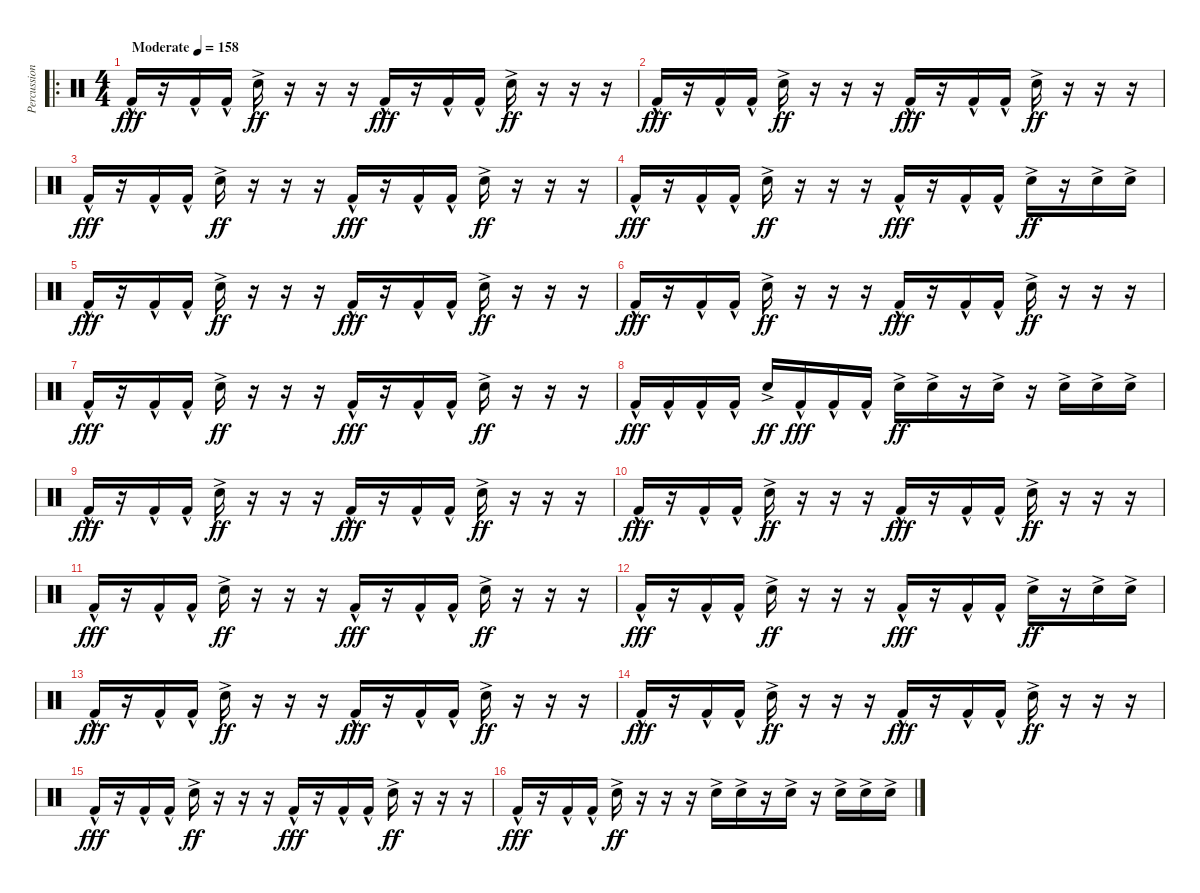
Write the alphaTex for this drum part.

\track ("Percussion" "Percussion") {instrument percussion}
\staff {score}
\articulation defaults
\ro
\ts (4 4)
\tempo (158 "Moderate")
\clef neutral
\ks c "Kick (hit) 2"{hac}.16{dy fff}
r.16 "Kick (hit) 2"{hac}.16 "Kick (hit) 2"{hac}.16 "Snare (hit) 2"{ac}.16{dy ff} r.16 r.16 r.16 "Kick (hit) 2"{hac}.16{dy fff} r.16 "Kick (hit) 2"{hac}.16 "Kick (hit) 2"{hac}.16 "Snare (hit) 2"{ac}.16{dy ff} r.16 r.16 r.16 |
"Kick (hit) 2"{hac}.16{dy fff} r.16 "Kick (hit) 2"{hac}.16 "Kick (hit) 2"{hac}.16 "Snare (hit) 2"{ac}.16{dy ff} r.16 r.16 r.16 "Kick (hit) 2"{hac}.16{dy fff} r.16 "Kick (hit) 2"{hac}.16 "Kick (hit) 2"{hac}.16 "Snare (hit) 2"{ac}.16{dy ff} r.16 r.16 r.16 |
"Kick (hit) 2"{hac}.16{dy fff} r.16 "Kick (hit) 2"{hac}.16 "Kick (hit) 2"{hac}.16 "Snare (hit) 2"{ac}.16{dy ff} r.16 r.16 r.16 "Kick (hit) 2"{hac}.16{dy fff} r.16 "Kick (hit) 2"{hac}.16 "Kick (hit) 2"{hac}.16 "Snare (hit) 2"{ac}.16{dy ff} r.16 r.16 r.16 |
"Kick (hit) 2"{hac}.16{dy fff} r.16 "Kick (hit) 2"{hac}.16 "Kick (hit) 2"{hac}.16 "Snare (hit) 2"{ac}.16{dy ff} r.16 r.16 r.16 "Kick (hit) 2"{hac}.16{dy fff} r.16 "Kick (hit) 2"{hac}.16 "Kick (hit) 2"{hac}.16 "Snare (hit) 2"{ac}.16{dy ff} r.16 "Snare (hit) 2"{ac}.16 "Snare (hit) 2"{ac}.16 |
"Kick (hit) 2"{hac}.16{dy fff} r.16 "Kick (hit) 2"{hac}.16 "Kick (hit) 2"{hac}.16 "Snare (hit) 2"{ac}.16{dy ff} r.16 r.16 r.16 "Kick (hit) 2"{hac}.16{dy fff} r.16 "Kick (hit) 2"{hac}.16 "Kick (hit) 2"{hac}.16 "Snare (hit) 2"{ac}.16{dy ff} r.16 r.16 r.16 |
"Kick (hit) 2"{hac}.16{dy fff} r.16 "Kick (hit) 2"{hac}.16 "Kick (hit) 2"{hac}.16 "Snare (hit) 2"{ac}.16{dy ff} r.16 r.16 r.16 "Kick (hit) 2"{hac}.16{dy fff} r.16 "Kick (hit) 2"{hac}.16 "Kick (hit) 2"{hac}.16 "Snare (hit) 2"{ac}.16{dy ff} r.16 r.16 r.16 |
"Kick (hit) 2"{hac}.16{dy fff} r.16 "Kick (hit) 2"{hac}.16 "Kick (hit) 2"{hac}.16 "Snare (hit) 2"{ac}.16{dy ff} r.16 r.16 r.16 "Kick (hit) 2"{hac}.16{dy fff} r.16 "Kick (hit) 2"{hac}.16 "Kick (hit) 2"{hac}.16 "Snare (hit) 2"{ac}.16{dy ff} r.16 r.16 r.16 |
"Kick (hit) 2"{hac}.16{dy fff} "Kick (hit) 2"{hac}.16 "Kick (hit) 2"{hac}.16 "Kick (hit) 2"{hac}.16 "Snare (hit) 2"{ac}.16{dy ff} "Kick (hit) 2"{hac}.16{dy fff} "Kick (hit) 2"{hac}.16 "Kick (hit) 2"{hac}.16 "Snare (hit) 2"{ac}.16{dy ff} "Snare (hit) 2"{ac}.16 r.16 "Snare (hit) 2"{ac}.16 r.16 "Snare (hit) 2"{ac}.16 "Snare (hit) 2"{ac}.16 "Snare (hit) 2"{ac}.16 |
"Kick (hit) 2"{hac}.16{dy fff} r.16 "Kick (hit) 2"{hac}.16 "Kick (hit) 2"{hac}.16 "Snare (hit) 2"{ac}.16{dy ff} r.16 r.16 r.16 "Kick (hit) 2"{hac}.16{dy fff} r.16 "Kick (hit) 2"{hac}.16 "Kick (hit) 2"{hac}.16 "Snare (hit) 2"{ac}.16{dy ff} r.16 r.16 r.16 |
"Kick (hit) 2"{hac}.16{dy fff} r.16 "Kick (hit) 2"{hac}.16 "Kick (hit) 2"{hac}.16 "Snare (hit) 2"{ac}.16{dy ff} r.16 r.16 r.16 "Kick (hit) 2"{hac}.16{dy fff} r.16 "Kick (hit) 2"{hac}.16 "Kick (hit) 2"{hac}.16 "Snare (hit) 2"{ac}.16{dy ff} r.16 r.16 r.16 |
"Kick (hit) 2"{hac}.16{dy fff} r.16 "Kick (hit) 2"{hac}.16 "Kick (hit) 2"{hac}.16 "Snare (hit) 2"{ac}.16{dy ff} r.16 r.16 r.16 "Kick (hit) 2"{hac}.16{dy fff} r.16 "Kick (hit) 2"{hac}.16 "Kick (hit) 2"{hac}.16 "Snare (hit) 2"{ac}.16{dy ff} r.16 r.16 r.16 |
"Kick (hit) 2"{hac}.16{dy fff} r.16 "Kick (hit) 2"{hac}.16 "Kick (hit) 2"{hac}.16 "Snare (hit) 2"{ac}.16{dy ff} r.16 r.16 r.16 "Kick (hit) 2"{hac}.16{dy fff} r.16 "Kick (hit) 2"{hac}.16 "Kick (hit) 2"{hac}.16 "Snare (hit) 2"{ac}.16{dy ff} r.16 "Snare (hit) 2"{ac}.16 "Snare (hit) 2"{ac}.16 |
"Kick (hit) 2"{hac}.16{dy fff} r.16 "Kick (hit) 2"{hac}.16 "Kick (hit) 2"{hac}.16 "Snare (hit) 2"{ac}.16{dy ff} r.16 r.16 r.16 "Kick (hit) 2"{hac}.16{dy fff} r.16 "Kick (hit) 2"{hac}.16 "Kick (hit) 2"{hac}.16 "Snare (hit) 2"{ac}.16{dy ff} r.16 r.16 r.16 |
"Kick (hit) 2"{hac}.16{dy fff} r.16 "Kick (hit) 2"{hac}.16 "Kick (hit) 2"{hac}.16 "Snare (hit) 2"{ac}.16{dy ff} r.16 r.16 r.16 "Kick (hit) 2"{hac}.16{dy fff} r.16 "Kick (hit) 2"{hac}.16 "Kick (hit) 2"{hac}.16 "Snare (hit) 2"{ac}.16{dy ff} r.16 r.16 r.16 |
"Kick (hit) 2"{hac}.16{dy fff} r.16 "Kick (hit) 2"{hac}.16 "Kick (hit) 2"{hac}.16 "Snare (hit) 2"{ac}.16{dy ff} r.16 r.16 r.16 "Kick (hit) 2"{hac}.16{dy fff} r.16 "Kick (hit) 2"{hac}.16 "Kick (hit) 2"{hac}.16 "Snare (hit) 2"{ac}.16{dy ff} r.16 r.16 r.16 |
"Kick (hit) 2"{hac}.16{dy fff} r.16 "Kick (hit) 2"{hac}.16 "Kick (hit) 2"{hac}.16 "Snare (hit) 2"{ac}.16{dy ff} r.16 r.16 r.16 "Snare (hit) 2"{ac}.16 "Snare (hit) 2"{ac}.16 r.16 "Snare (hit) 2"{ac}.16 r.16 "Snare (hit) 2"{ac}.16 "Snare (hit) 2"{ac}.16 "Snare (hit) 2"{ac}.16
